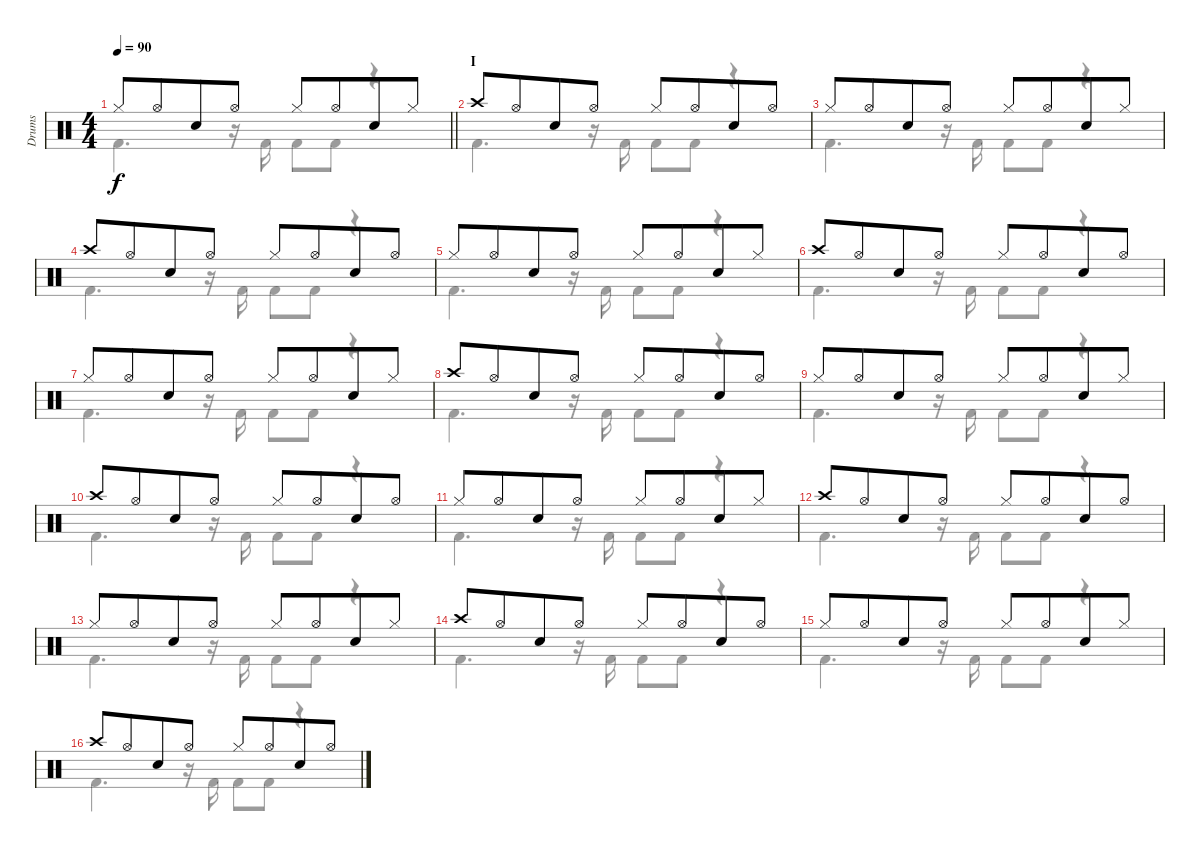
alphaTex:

\track ("Drums" "Drums") {instrument percussion}
\staff {score}
\articulation defaults
\voice
\ts (4 4)
\tempo 90
\clef neutral
\barLineRight lightlight
\ks c "Hi-Hat (closed)".8{dy f} "Hi-Hat (open)".8{beam merge} "Snare (hit) 2".8 "Hi-Hat (open)".8 "Hi-Hat (closed)".8 "Hi-Hat (open)".8{beam merge} "Snare (hit) 2".8 "Hi-Hat (closed)".8
|
\section ("" "I")
"Crash high (hit)".8 "Hi-Hat (open)".8{beam merge} "Snare (hit) 2".8 "Hi-Hat (open)".8 "Hi-Hat (closed)".8 "Hi-Hat (open)".8{beam merge} "Snare (hit) 2".8 "Hi-Hat (open)".8 |
"Hi-Hat (closed)".8 "Hi-Hat (open)".8{beam merge} "Snare (hit) 2".8 "Hi-Hat (open)".8 "Hi-Hat (closed)".8 "Hi-Hat (open)".8{beam merge} "Snare (hit) 2".8 "Hi-Hat (closed)".8 |
"Crash high (hit)".8 "Hi-Hat (open)".8{beam merge} "Snare (hit) 2".8 "Hi-Hat (open)".8 "Hi-Hat (closed)".8 "Hi-Hat (open)".8{beam merge} "Snare (hit) 2".8 "Hi-Hat (open)".8 |
"Hi-Hat (closed)".8 "Hi-Hat (open)".8{beam merge} "Snare (hit) 2".8 "Hi-Hat (open)".8 "Hi-Hat (closed)".8 "Hi-Hat (open)".8{beam merge} "Snare (hit) 2".8 "Hi-Hat (closed)".8 |
"Crash high (hit)".8 "Hi-Hat (open)".8{beam merge} "Snare (hit) 2".8 "Hi-Hat (open)".8 "Hi-Hat (closed)".8 "Hi-Hat (open)".8{beam merge} "Snare (hit) 2".8 "Hi-Hat (open)".8 |
"Hi-Hat (closed)".8 "Hi-Hat (open)".8{beam merge} "Snare (hit) 2".8 "Hi-Hat (open)".8 "Hi-Hat (closed)".8 "Hi-Hat (open)".8{beam merge} "Snare (hit) 2".8 "Hi-Hat (closed)".8 |
"Crash high (hit)".8 "Hi-Hat (open)".8{beam merge} "Snare (hit) 2".8 "Hi-Hat (open)".8 "Hi-Hat (closed)".8 "Hi-Hat (open)".8{beam merge} "Snare (hit) 2".8 "Hi-Hat (open)".8 |
"Hi-Hat (closed)".8 "Hi-Hat (open)".8{beam merge} "Snare (hit) 2".8 "Hi-Hat (open)".8 "Hi-Hat (closed)".8 "Hi-Hat (open)".8{beam merge} "Snare (hit) 2".8 "Hi-Hat (closed)".8 |
"Crash high (hit)".8 "Hi-Hat (open)".8{beam merge} "Snare (hit) 2".8 "Hi-Hat (open)".8 "Hi-Hat (closed)".8 "Hi-Hat (open)".8{beam merge} "Snare (hit) 2".8 "Hi-Hat (open)".8 |
"Hi-Hat (closed)".8 "Hi-Hat (open)".8{beam merge} "Snare (hit) 2".8 "Hi-Hat (open)".8 "Hi-Hat (closed)".8 "Hi-Hat (open)".8{beam merge} "Snare (hit) 2".8 "Hi-Hat (closed)".8 |
"Crash high (hit)".8 "Hi-Hat (open)".8{beam merge} "Snare (hit) 2".8 "Hi-Hat (open)".8 "Hi-Hat (closed)".8 "Hi-Hat (open)".8{beam merge} "Snare (hit) 2".8 "Hi-Hat (open)".8 |
"Hi-Hat (closed)".8 "Hi-Hat (open)".8{beam merge} "Snare (hit) 2".8 "Hi-Hat (open)".8 "Hi-Hat (closed)".8 "Hi-Hat (open)".8{beam merge} "Snare (hit) 2".8 "Hi-Hat (closed)".8 |
"Crash high (hit)".8 "Hi-Hat (open)".8{beam merge} "Snare (hit) 2".8 "Hi-Hat (open)".8 "Hi-Hat (closed)".8 "Hi-Hat (open)".8{beam merge} "Snare (hit) 2".8 "Hi-Hat (open)".8 |
"Hi-Hat (closed)".8 "Hi-Hat (open)".8{beam merge} "Snare (hit) 2".8 "Hi-Hat (open)".8 "Hi-Hat (closed)".8 "Hi-Hat (open)".8{beam merge} "Snare (hit) 2".8 "Hi-Hat (closed)".8 |
"Crash high (hit)".8 "Hi-Hat (open)".8{beam merge} "Snare (hit) 2".8 "Hi-Hat (open)".8 "Hi-Hat (closed)".8 "Hi-Hat (open)".8{beam merge} "Snare (hit) 2".8 "Hi-Hat (open)".8
\voice
\clef neutral
\ottava regular
\simile none
\barLineRight lightlight
\ks c "Kick (hit) 2".4{d dy f}
r.16 "Kick (hit) 2".16 "Kick (hit) 2".8 "Kick (hit) 2".8 r.4 |
"Kick (hit) 2".4{d} r.16 "Kick (hit) 2".16 "Kick (hit) 2".8 "Kick (hit) 2".8 r.4 |
"Kick (hit) 2".4{d} r.16 "Kick (hit) 2".16 "Kick (hit) 2".8 "Kick (hit) 2".8 r.4 |
"Kick (hit) 2".4{d} r.16 "Kick (hit) 2".16 "Kick (hit) 2".8 "Kick (hit) 2".8 r.4 |
"Kick (hit) 2".4{d} r.16 "Kick (hit) 2".16 "Kick (hit) 2".8 "Kick (hit) 2".8 r.4 |
"Kick (hit) 2".4{d} r.16 "Kick (hit) 2".16 "Kick (hit) 2".8 "Kick (hit) 2".8 r.4 |
"Kick (hit) 2".4{d} r.16 "Kick (hit) 2".16 "Kick (hit) 2".8 "Kick (hit) 2".8 r.4 |
"Kick (hit) 2".4{d} r.16 "Kick (hit) 2".16 "Kick (hit) 2".8 "Kick (hit) 2".8 r.4 |
"Kick (hit) 2".4{d} r.16 "Kick (hit) 2".16 "Kick (hit) 2".8 "Kick (hit) 2".8 r.4 |
"Kick (hit) 2".4{d} r.16 "Kick (hit) 2".16 "Kick (hit) 2".8 "Kick (hit) 2".8 r.4 |
"Kick (hit) 2".4{d} r.16 "Kick (hit) 2".16 "Kick (hit) 2".8 "Kick (hit) 2".8 r.4 |
"Kick (hit) 2".4{d} r.16 "Kick (hit) 2".16 "Kick (hit) 2".8 "Kick (hit) 2".8 r.4 |
"Kick (hit) 2".4{d} r.16 "Kick (hit) 2".16 "Kick (hit) 2".8 "Kick (hit) 2".8 r.4 |
"Kick (hit) 2".4{d} r.16 "Kick (hit) 2".16 "Kick (hit) 2".8 "Kick (hit) 2".8 r.4 |
"Kick (hit) 2".4{d} r.16 "Kick (hit) 2".16 "Kick (hit) 2".8 "Kick (hit) 2".8 r.4 |
"Kick (hit) 2".4{d} r.16 "Kick (hit) 2".16 "Kick (hit) 2".8 "Kick (hit) 2".8 r.4
